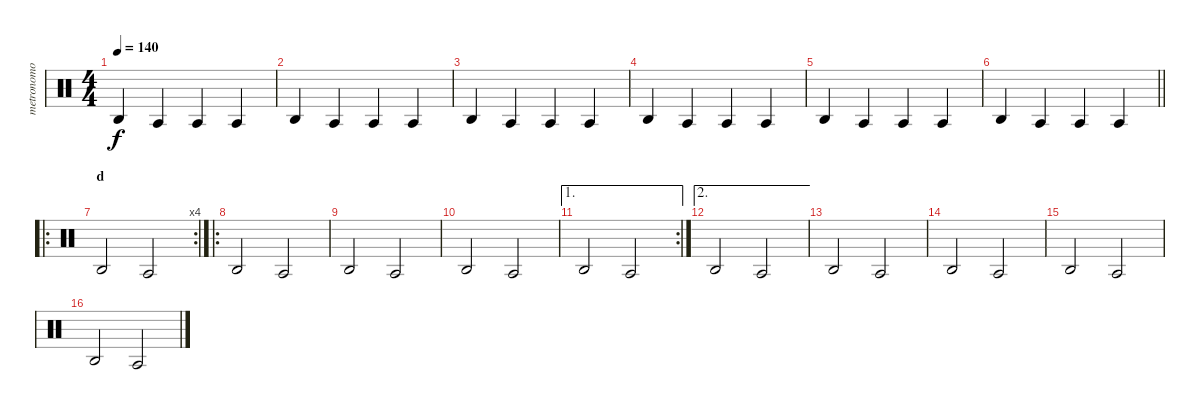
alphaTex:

\track ("metronomo" "metronomo") {instrument percussion}
\staff {score}
\articulation defaults
\ts (4 4)
\tempo 140
\clef neutral
\ks c "Agogo high (hit)".4{dy f} "Agogo tow (hit)".4 "Agogo tow (hit)".4 "Agogo tow (hit)".4
|
"Agogo high (hit)".4 "Agogo tow (hit)".4 "Agogo tow (hit)".4 "Agogo tow (hit)".4 |
"Agogo high (hit)".4 "Agogo tow (hit)".4 "Agogo tow (hit)".4 "Agogo tow (hit)".4 |
"Agogo high (hit)".4 "Agogo tow (hit)".4 "Agogo tow (hit)".4 "Agogo tow (hit)".4 |
"Agogo high (hit)".4 "Agogo tow (hit)".4 "Agogo tow (hit)".4 "Agogo tow (hit)".4 |
\barLineRight lightlight "Agogo high (hit)".4 "Agogo tow (hit)".4 "Agogo tow (hit)".4 "Agogo tow (hit)".4
|
\ro
\rc 4
\section ("" "d")
"Agogo high (hit)".2 "Agogo tow (hit)".2 |
\ro "Agogo high (hit)".2 "Agogo tow (hit)".2
|
"Agogo high (hit)".2 "Agogo tow (hit)".2 |
"Agogo high (hit)".2 "Agogo tow (hit)".2 |
\ae 1
\rc 2 "Agogo high (hit)".2 "Agogo tow (hit)".2
|
\ae 2 "Agogo high (hit)".2 "Agogo tow (hit)".2
|
"Agogo high (hit)".2 "Agogo tow (hit)".2 |
"Agogo high (hit)".2 "Agogo tow (hit)".2 |
"Agogo high (hit)".2 "Agogo tow (hit)".2 |
"Agogo high (hit)".2 "Agogo tow (hit)".2
